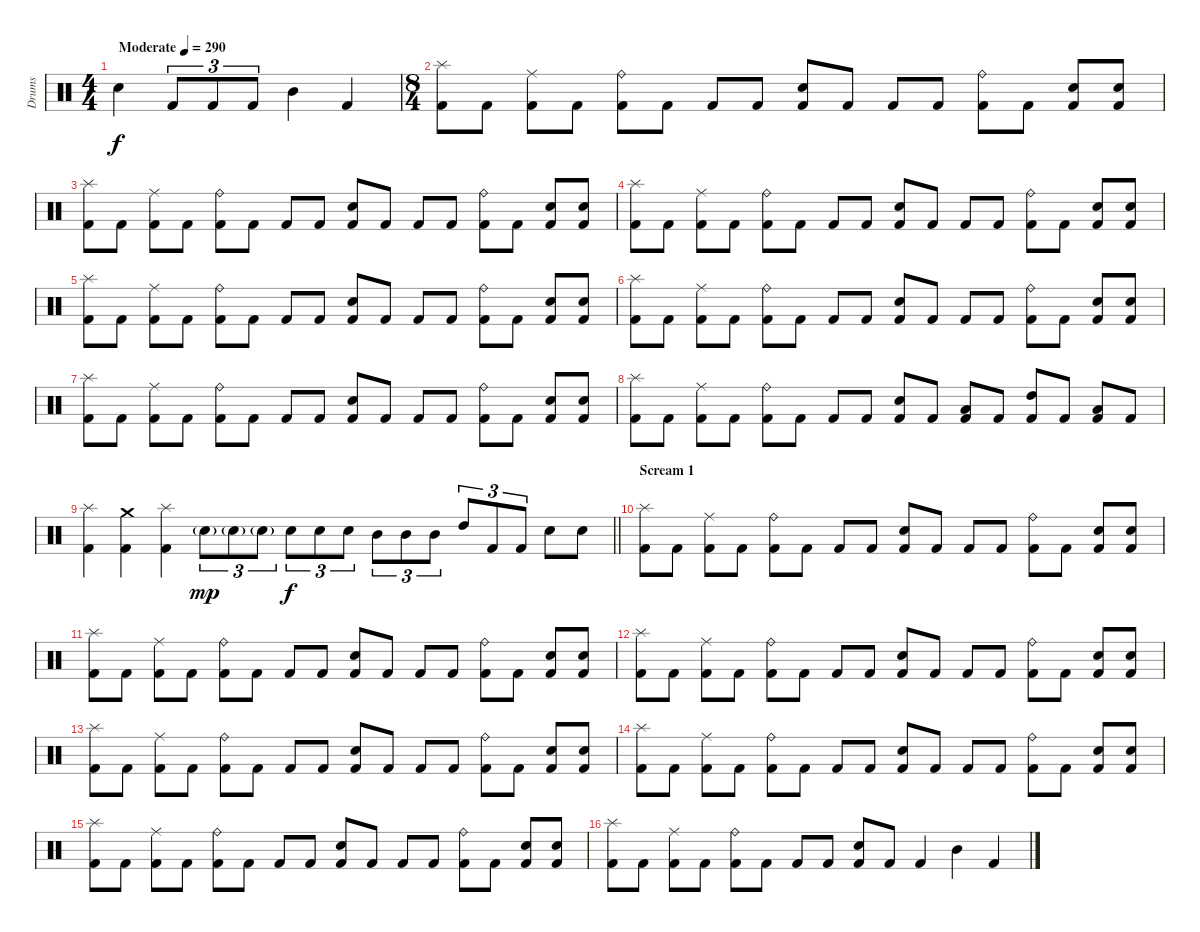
\track ("Drums" "Drums") {instrument percussion}
\staff {score}
\articulation defaults
\ts (4 4)
\tempo (290 "Moderate")
\clef neutral
\ks c "Snare (hit) 2".4{dy f} "Kick (hit) 2".8{tu (3 2)} "Kick (hit) 2".8{tu (3 2)} "Kick (hit) 2".8{tu (3 2)} "Mid Tom (hit)".4 "Kick (hit) 2".4
|
\ts (8 4)
("Splash (hit)" "Kick (hit) 2").8 "Kick (hit) 2".8 ("Ride (middle)" "Kick (hit) 2").8 "Kick (hit) 2".8 ("Ride (bell)" "Kick (hit) 2").8 "Kick (hit) 2".8 "Kick (hit) 2".8 "Kick (hit) 2".8 ("Snare (hit) 2" "Kick (hit) 2").8 "Kick (hit) 2".8 "Kick (hit) 2".8 "Kick (hit) 2".8 ("Ride (bell)" "Kick (hit) 2").8 "Kick (hit) 2".8 ("Snare (hit) 2" "Kick (hit) 2").8 ("Snare (hit) 2" "Kick (hit) 2").8 |
("Splash (hit)" "Kick (hit) 2").8 "Kick (hit) 2".8 ("Ride (middle)" "Kick (hit) 2").8 "Kick (hit) 2".8 ("Ride (bell)" "Kick (hit) 2").8 "Kick (hit) 2".8 "Kick (hit) 2".8 "Kick (hit) 2".8 ("Snare (hit) 2" "Kick (hit) 2").8 "Kick (hit) 2".8 "Kick (hit) 2".8 "Kick (hit) 2".8 ("Ride (bell)" "Kick (hit) 2").8 "Kick (hit) 2".8 ("Snare (hit) 2" "Kick (hit) 2").8 ("Snare (hit) 2" "Kick (hit) 2").8 |
("Splash (hit)" "Kick (hit) 2").8 "Kick (hit) 2".8 ("Ride (middle)" "Kick (hit) 2").8 "Kick (hit) 2".8 ("Ride (bell)" "Kick (hit) 2").8 "Kick (hit) 2".8 "Kick (hit) 2".8 "Kick (hit) 2".8 ("Snare (hit) 2" "Kick (hit) 2").8 "Kick (hit) 2".8 "Kick (hit) 2".8 "Kick (hit) 2".8 ("Ride (bell)" "Kick (hit) 2").8 "Kick (hit) 2".8 ("Snare (hit) 2" "Kick (hit) 2").8 ("Snare (hit) 2" "Kick (hit) 2").8 |
("Splash (hit)" "Kick (hit) 2").8 "Kick (hit) 2".8 ("Ride (middle)" "Kick (hit) 2").8 "Kick (hit) 2".8 ("Ride (bell)" "Kick (hit) 2").8 "Kick (hit) 2".8 "Kick (hit) 2".8 "Kick (hit) 2".8 ("Snare (hit) 2" "Kick (hit) 2").8 "Kick (hit) 2".8 "Kick (hit) 2".8 "Kick (hit) 2".8 ("Ride (bell)" "Kick (hit) 2").8 "Kick (hit) 2".8 ("Snare (hit) 2" "Kick (hit) 2").8 ("Snare (hit) 2" "Kick (hit) 2").8 |
("Splash (hit)" "Kick (hit) 2").8 "Kick (hit) 2".8 ("Ride (middle)" "Kick (hit) 2").8 "Kick (hit) 2".8 ("Ride (bell)" "Kick (hit) 2").8 "Kick (hit) 2".8 "Kick (hit) 2".8 "Kick (hit) 2".8 ("Snare (hit) 2" "Kick (hit) 2").8 "Kick (hit) 2".8 "Kick (hit) 2".8 "Kick (hit) 2".8 ("Ride (bell)" "Kick (hit) 2").8 "Kick (hit) 2".8 ("Snare (hit) 2" "Kick (hit) 2").8 ("Snare (hit) 2" "Kick (hit) 2").8 |
("Splash (hit)" "Kick (hit) 2").8 "Kick (hit) 2".8 ("Ride (middle)" "Kick (hit) 2").8 "Kick (hit) 2".8 ("Ride (bell)" "Kick (hit) 2").8 "Kick (hit) 2".8 "Kick (hit) 2".8 "Kick (hit) 2".8 ("Snare (hit) 2" "Kick (hit) 2").8 "Kick (hit) 2".8 "Kick (hit) 2".8 "Kick (hit) 2".8 ("Ride (bell)" "Kick (hit) 2").8 "Kick (hit) 2".8 ("Snare (hit) 2" "Kick (hit) 2").8 ("Snare (hit) 2" "Kick (hit) 2").8 |
("Splash (hit)" "Kick (hit) 2").8 "Kick (hit) 2".8 ("Ride (middle)" "Kick (hit) 2").8 "Kick (hit) 2".8 ("Ride (bell)" "Kick (hit) 2").8 "Kick (hit) 2".8 "Kick (hit) 2".8 "Kick (hit) 2".8 ("Snare (hit) 2" "Kick (hit) 2").8 "Kick (hit) 2".8 ("Low Tom (hit)" "Kick (hit) 2").8 "Kick (hit) 2".8 ("High Tom (hit)" "Kick (hit) 2").8 "Kick (hit) 2".8 ("Low Tom (hit)" "Kick (hit) 2").8 "Kick (hit) 2".8 |
\barLineRight lightlight
("Splash (hit)" "Kick (hit) 2").4 ("Crash medium (hit)" "Kick (hit) 2").4 ("Splash (hit)" "Kick (hit) 2").4 "Snare (hit) 2"{g}.8{tu (3 2) dy mp} "Snare (hit) 2"{g}.8{tu (3 2)} "Snare (hit) 2"{g}.8{tu (3 2)} "Snare (hit) 2".8{tu (3 2) dy f} "Snare (hit) 2".8{tu (3 2)} "Snare (hit) 2".8{tu (3 2)} "Mid Tom (hit)".8{tu (3 2)} "Mid Tom (hit)".8{tu (3 2)} "Mid Tom (hit)".8{tu (3 2)} "High Tom (hit)".8{tu (3 2)} "Kick (hit) 2".8{tu (3 2)} "Kick (hit) 2".8{tu (3 2)} "Snare (hit) 2".8 "Snare (hit) 2".8 |
\section ("" "Scream 1")
("Splash (hit)" "Kick (hit) 2").8 "Kick (hit) 2".8 ("Ride (middle)" "Kick (hit) 2").8 "Kick (hit) 2".8 ("Ride (bell)" "Kick (hit) 2").8 "Kick (hit) 2".8 "Kick (hit) 2".8 "Kick (hit) 2".8 ("Snare (hit) 2" "Kick (hit) 2").8 "Kick (hit) 2".8 "Kick (hit) 2".8 "Kick (hit) 2".8 ("Ride (bell)" "Kick (hit) 2").8 "Kick (hit) 2".8 ("Snare (hit) 2" "Kick (hit) 2").8 ("Snare (hit) 2" "Kick (hit) 2").8 |
("Splash (hit)" "Kick (hit) 2").8 "Kick (hit) 2".8 ("Ride (middle)" "Kick (hit) 2").8 "Kick (hit) 2".8 ("Ride (bell)" "Kick (hit) 2").8 "Kick (hit) 2".8 "Kick (hit) 2".8 "Kick (hit) 2".8 ("Snare (hit) 2" "Kick (hit) 2").8 "Kick (hit) 2".8 "Kick (hit) 2".8 "Kick (hit) 2".8 ("Ride (bell)" "Kick (hit) 2").8 "Kick (hit) 2".8 ("Snare (hit) 2" "Kick (hit) 2").8 ("Snare (hit) 2" "Kick (hit) 2").8 |
("Splash (hit)" "Kick (hit) 2").8 "Kick (hit) 2".8 ("Ride (middle)" "Kick (hit) 2").8 "Kick (hit) 2".8 ("Ride (bell)" "Kick (hit) 2").8 "Kick (hit) 2".8 "Kick (hit) 2".8 "Kick (hit) 2".8 ("Snare (hit) 2" "Kick (hit) 2").8 "Kick (hit) 2".8 "Kick (hit) 2".8 "Kick (hit) 2".8 ("Ride (bell)" "Kick (hit) 2").8 "Kick (hit) 2".8 ("Snare (hit) 2" "Kick (hit) 2").8 ("Snare (hit) 2" "Kick (hit) 2").8 |
("Splash (hit)" "Kick (hit) 2").8 "Kick (hit) 2".8 ("Ride (middle)" "Kick (hit) 2").8 "Kick (hit) 2".8 ("Ride (bell)" "Kick (hit) 2").8 "Kick (hit) 2".8 "Kick (hit) 2".8 "Kick (hit) 2".8 ("Snare (hit) 2" "Kick (hit) 2").8 "Kick (hit) 2".8 "Kick (hit) 2".8 "Kick (hit) 2".8 ("Ride (bell)" "Kick (hit) 2").8 "Kick (hit) 2".8 ("Snare (hit) 2" "Kick (hit) 2").8 ("Snare (hit) 2" "Kick (hit) 2").8 |
("Splash (hit)" "Kick (hit) 2").8 "Kick (hit) 2".8 ("Ride (middle)" "Kick (hit) 2").8 "Kick (hit) 2".8 ("Ride (bell)" "Kick (hit) 2").8 "Kick (hit) 2".8 "Kick (hit) 2".8 "Kick (hit) 2".8 ("Snare (hit) 2" "Kick (hit) 2").8 "Kick (hit) 2".8 "Kick (hit) 2".8 "Kick (hit) 2".8 ("Ride (bell)" "Kick (hit) 2").8 "Kick (hit) 2".8 ("Snare (hit) 2" "Kick (hit) 2").8 ("Snare (hit) 2" "Kick (hit) 2").8 |
("Splash (hit)" "Kick (hit) 2").8 "Kick (hit) 2".8 ("Ride (middle)" "Kick (hit) 2").8 "Kick (hit) 2".8 ("Ride (bell)" "Kick (hit) 2").8 "Kick (hit) 2".8 "Kick (hit) 2".8 "Kick (hit) 2".8 ("Snare (hit) 2" "Kick (hit) 2").8 "Kick (hit) 2".8 "Kick (hit) 2".8 "Kick (hit) 2".8 ("Ride (bell)" "Kick (hit) 2").8 "Kick (hit) 2".8 ("Snare (hit) 2" "Kick (hit) 2").8 ("Snare (hit) 2" "Kick (hit) 2").8 |
("Splash (hit)" "Kick (hit) 2").8 "Kick (hit) 2".8 ("Ride (middle)" "Kick (hit) 2").8 "Kick (hit) 2".8 ("Ride (bell)" "Kick (hit) 2").8 "Kick (hit) 2".8 "Kick (hit) 2".8 "Kick (hit) 2".8 ("Snare (hit) 2" "Kick (hit) 2").8 "Kick (hit) 2".8 "Kick (hit) 2".4 "Mid Tom (hit)".4 "Kick (hit) 2".4
